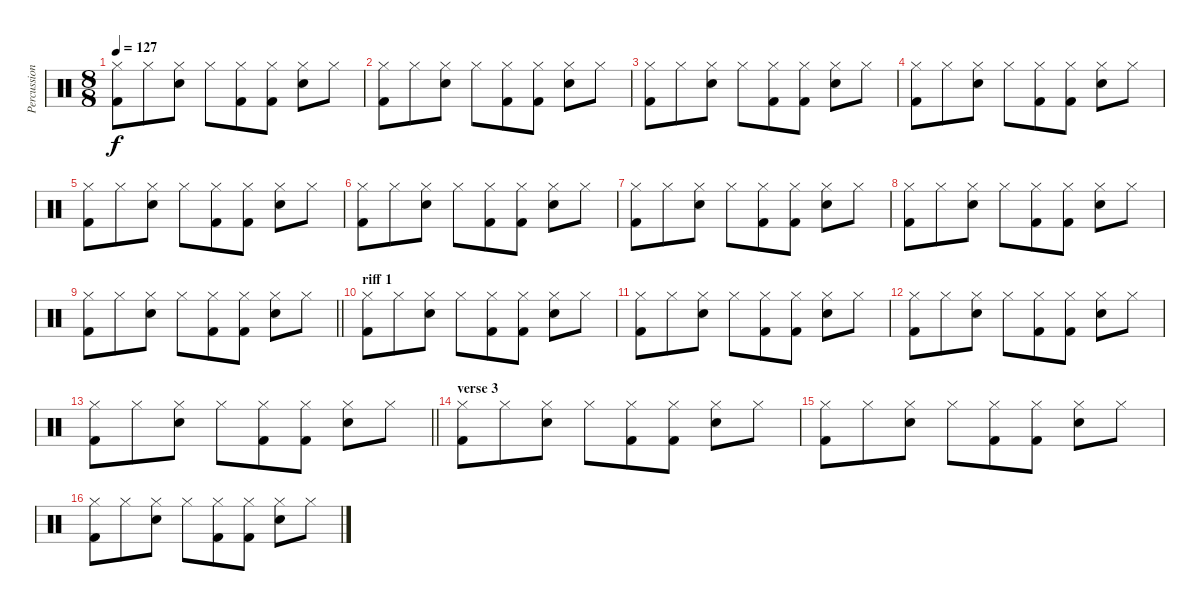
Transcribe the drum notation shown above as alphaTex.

\track ("Percussion" "Percussion") {instrument percussion}
\staff {score}
\articulation defaults
\ts (8 8)
\tempo 127
\clef neutral
\ks c
("Hi-Hat (closed)" "Kick (hit) 2").8{dy f} "Hi-Hat (closed)".8 ("Hi-Hat (closed)" "Snare (hit) 2").8 "Hi-Hat (closed)".8 ("Hi-Hat (closed)" "Kick (hit) 2").8 ("Hi-Hat (closed)" "Kick (hit) 2").8 ("Hi-Hat (closed)" "Snare (hit) 2").8 "Hi-Hat (closed)".8 |
("Hi-Hat (closed)" "Kick (hit) 2").8 "Hi-Hat (closed)".8 ("Hi-Hat (closed)" "Snare (hit) 2").8 "Hi-Hat (closed)".8 ("Hi-Hat (closed)" "Kick (hit) 2").8 ("Hi-Hat (closed)" "Kick (hit) 2").8 ("Hi-Hat (closed)" "Snare (hit) 2").8 "Hi-Hat (closed)".8 |
("Hi-Hat (closed)" "Kick (hit) 2").8 "Hi-Hat (closed)".8 ("Hi-Hat (closed)" "Snare (hit) 2").8 "Hi-Hat (closed)".8 ("Hi-Hat (closed)" "Kick (hit) 2").8 ("Hi-Hat (closed)" "Kick (hit) 2").8 ("Hi-Hat (closed)" "Snare (hit) 2").8 "Hi-Hat (closed)".8 |
("Hi-Hat (closed)" "Kick (hit) 2").8 "Hi-Hat (closed)".8 ("Hi-Hat (closed)" "Snare (hit) 2").8 "Hi-Hat (closed)".8 ("Hi-Hat (closed)" "Kick (hit) 2").8 ("Hi-Hat (closed)" "Kick (hit) 2").8 ("Hi-Hat (closed)" "Snare (hit) 2").8 "Hi-Hat (closed)".8 |
("Hi-Hat (closed)" "Kick (hit) 2").8 "Hi-Hat (closed)".8 ("Hi-Hat (closed)" "Snare (hit) 2").8 "Hi-Hat (closed)".8 ("Hi-Hat (closed)" "Kick (hit) 2").8 ("Hi-Hat (closed)" "Kick (hit) 2").8 ("Hi-Hat (closed)" "Snare (hit) 2").8 "Hi-Hat (closed)".8 |
("Hi-Hat (closed)" "Kick (hit) 2").8 "Hi-Hat (closed)".8 ("Hi-Hat (closed)" "Snare (hit) 2").8 "Hi-Hat (closed)".8 ("Hi-Hat (closed)" "Kick (hit) 2").8 ("Hi-Hat (closed)" "Kick (hit) 2").8 ("Hi-Hat (closed)" "Snare (hit) 2").8 "Hi-Hat (closed)".8 |
("Hi-Hat (closed)" "Kick (hit) 2").8 "Hi-Hat (closed)".8 ("Hi-Hat (closed)" "Snare (hit) 2").8 "Hi-Hat (closed)".8 ("Hi-Hat (closed)" "Kick (hit) 2").8 ("Hi-Hat (closed)" "Kick (hit) 2").8 ("Hi-Hat (closed)" "Snare (hit) 2").8 "Hi-Hat (closed)".8 |
("Hi-Hat (closed)" "Kick (hit) 2").8 "Hi-Hat (closed)".8 ("Hi-Hat (closed)" "Snare (hit) 2").8 "Hi-Hat (closed)".8 ("Hi-Hat (closed)" "Kick (hit) 2").8 ("Hi-Hat (closed)" "Kick (hit) 2").8 ("Hi-Hat (closed)" "Snare (hit) 2").8 "Hi-Hat (closed)".8 |
\barLineRight lightlight
("Hi-Hat (closed)" "Kick (hit) 2").8 "Hi-Hat (closed)".8 ("Hi-Hat (closed)" "Snare (hit) 2").8 "Hi-Hat (closed)".8 ("Hi-Hat (closed)" "Kick (hit) 2").8 ("Hi-Hat (closed)" "Kick (hit) 2").8 ("Hi-Hat (closed)" "Snare (hit) 2").8 "Hi-Hat (closed)".8 |
\section ("" "riff 1")
("Hi-Hat (closed)" "Kick (hit) 2").8 "Hi-Hat (closed)".8 ("Hi-Hat (closed)" "Snare (hit) 2").8 "Hi-Hat (closed)".8 ("Hi-Hat (closed)" "Kick (hit) 2").8 ("Hi-Hat (closed)" "Kick (hit) 2").8 ("Hi-Hat (closed)" "Snare (hit) 2").8 "Hi-Hat (closed)".8 |
("Hi-Hat (closed)" "Kick (hit) 2").8 "Hi-Hat (closed)".8 ("Hi-Hat (closed)" "Snare (hit) 2").8 "Hi-Hat (closed)".8 ("Hi-Hat (closed)" "Kick (hit) 2").8 ("Hi-Hat (closed)" "Kick (hit) 2").8 ("Hi-Hat (closed)" "Snare (hit) 2").8 "Hi-Hat (closed)".8 |
("Hi-Hat (closed)" "Kick (hit) 2").8 "Hi-Hat (closed)".8 ("Hi-Hat (closed)" "Snare (hit) 2").8 "Hi-Hat (closed)".8 ("Hi-Hat (closed)" "Kick (hit) 2").8 ("Hi-Hat (closed)" "Kick (hit) 2").8 ("Hi-Hat (closed)" "Snare (hit) 2").8 "Hi-Hat (closed)".8 |
\barLineRight lightlight
("Hi-Hat (closed)" "Kick (hit) 2").8 "Hi-Hat (closed)".8 ("Hi-Hat (closed)" "Snare (hit) 2").8 "Hi-Hat (closed)".8 ("Hi-Hat (closed)" "Kick (hit) 2").8 ("Hi-Hat (closed)" "Kick (hit) 2").8 ("Hi-Hat (closed)" "Snare (hit) 2").8 "Hi-Hat (closed)".8 |
\section ("" "verse 3")
("Hi-Hat (closed)" "Kick (hit) 2").8 "Hi-Hat (closed)".8 ("Hi-Hat (closed)" "Snare (hit) 2").8 "Hi-Hat (closed)".8 ("Hi-Hat (closed)" "Kick (hit) 2").8 ("Hi-Hat (closed)" "Kick (hit) 2").8 ("Hi-Hat (closed)" "Snare (hit) 2").8 "Hi-Hat (closed)".8 |
("Hi-Hat (closed)" "Kick (hit) 2").8 "Hi-Hat (closed)".8 ("Hi-Hat (closed)" "Snare (hit) 2").8 "Hi-Hat (closed)".8 ("Hi-Hat (closed)" "Kick (hit) 2").8 ("Hi-Hat (closed)" "Kick (hit) 2").8 ("Hi-Hat (closed)" "Snare (hit) 2").8 "Hi-Hat (closed)".8 |
("Hi-Hat (closed)" "Kick (hit) 2").8 "Hi-Hat (closed)".8 ("Hi-Hat (closed)" "Snare (hit) 2").8 "Hi-Hat (closed)".8 ("Hi-Hat (closed)" "Kick (hit) 2").8 ("Hi-Hat (closed)" "Kick (hit) 2").8 ("Hi-Hat (closed)" "Snare (hit) 2").8 "Hi-Hat (closed)".8
